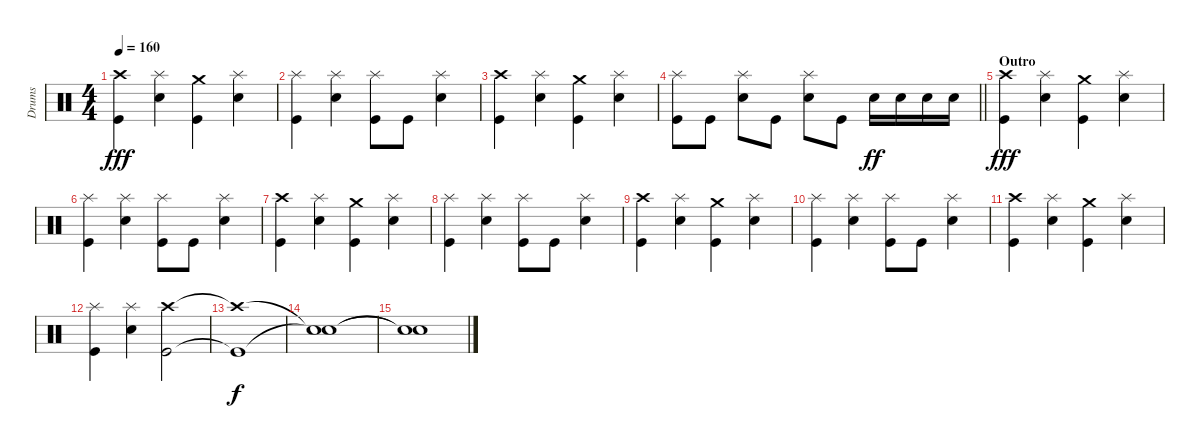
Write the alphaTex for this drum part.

\track ("Drums" "Drums") {instrument percussion}
\staff {score}
\articulation defaults
\ts (4 4)
\tempo 160
\clef neutral
\ks c
("Crash high (hit)" "Kick (hit)").4{dy fff} ("Splash (hit)" "Electric Snare (hit)").4 ("Crash medium (hit)" "Kick (hit)").4 ("Splash (hit)" "Electric Snare (hit)").4 |
("Splash (hit)" "Kick (hit)").4 ("Splash (hit)" "Electric Snare (hit)").4 ("Splash (hit)" "Kick (hit)").8 "Kick (hit)".8 ("Splash (hit)" "Electric Snare (hit)").4 |
("Crash high (hit)" "Kick (hit)").4 ("Splash (hit)" "Electric Snare (hit)").4 ("Crash medium (hit)" "Kick (hit)").4 ("Splash (hit)" "Electric Snare (hit)").4 |
\barLineRight lightlight
("Splash (hit)" "Kick (hit)").8 "Kick (hit)".8 ("Splash (hit)" "Electric Snare (hit)").8 "Kick (hit)".8 ("Splash (hit)" "Electric Snare (hit)").8 "Kick (hit)".8 "Electric Snare (hit)".16{dy ff} "Electric Snare (hit)".16 "Electric Snare (hit)".16 "Electric Snare (hit)".16 |
\section ("" "Outro")
("Crash high (hit)" "Kick (hit)").4{dy fff} ("Splash (hit)" "Electric Snare (hit)").4 ("Crash medium (hit)" "Kick (hit)").4 ("Splash (hit)" "Electric Snare (hit)").4 |
("Splash (hit)" "Kick (hit)").4 ("Splash (hit)" "Electric Snare (hit)").4 ("Splash (hit)" "Kick (hit)").8 "Kick (hit)".8 ("Splash (hit)" "Electric Snare (hit)").4 |
("Crash high (hit)" "Kick (hit)").4 ("Splash (hit)" "Electric Snare (hit)").4 ("Crash medium (hit)" "Kick (hit)").4 ("Splash (hit)" "Electric Snare (hit)").4 |
("Splash (hit)" "Kick (hit)").4 ("Splash (hit)" "Electric Snare (hit)").4 ("Splash (hit)" "Kick (hit)").8 "Kick (hit)".8 ("Splash (hit)" "Electric Snare (hit)").4 |
("Crash high (hit)" "Kick (hit)").4 ("Splash (hit)" "Electric Snare (hit)").4 ("Crash medium (hit)" "Kick (hit)").4 ("Splash (hit)" "Electric Snare (hit)").4 |
("Splash (hit)" "Kick (hit)").4 ("Splash (hit)" "Electric Snare (hit)").4 ("Splash (hit)" "Kick (hit)").8 "Kick (hit)".8 ("Splash (hit)" "Electric Snare (hit)").4 |
("Crash high (hit)" "Kick (hit)").4 ("Splash (hit)" "Electric Snare (hit)").4 ("Crash medium (hit)" "Kick (hit)").4 ("Splash (hit)" "Electric Snare (hit)").4 |
("Splash (hit)" "Kick (hit)").4 ("Splash (hit)" "Electric Snare (hit)").4 ("Crash high (hit)" "Kick (hit)").2 |
("Crash high (hit)"{t} "Kick (hit)"{t}).1{dy f} |
("Snare (hit)"{t} "Snare (hit)"{t}).1 |
("Snare (hit)"{t} "Snare (hit)"{t}).1
